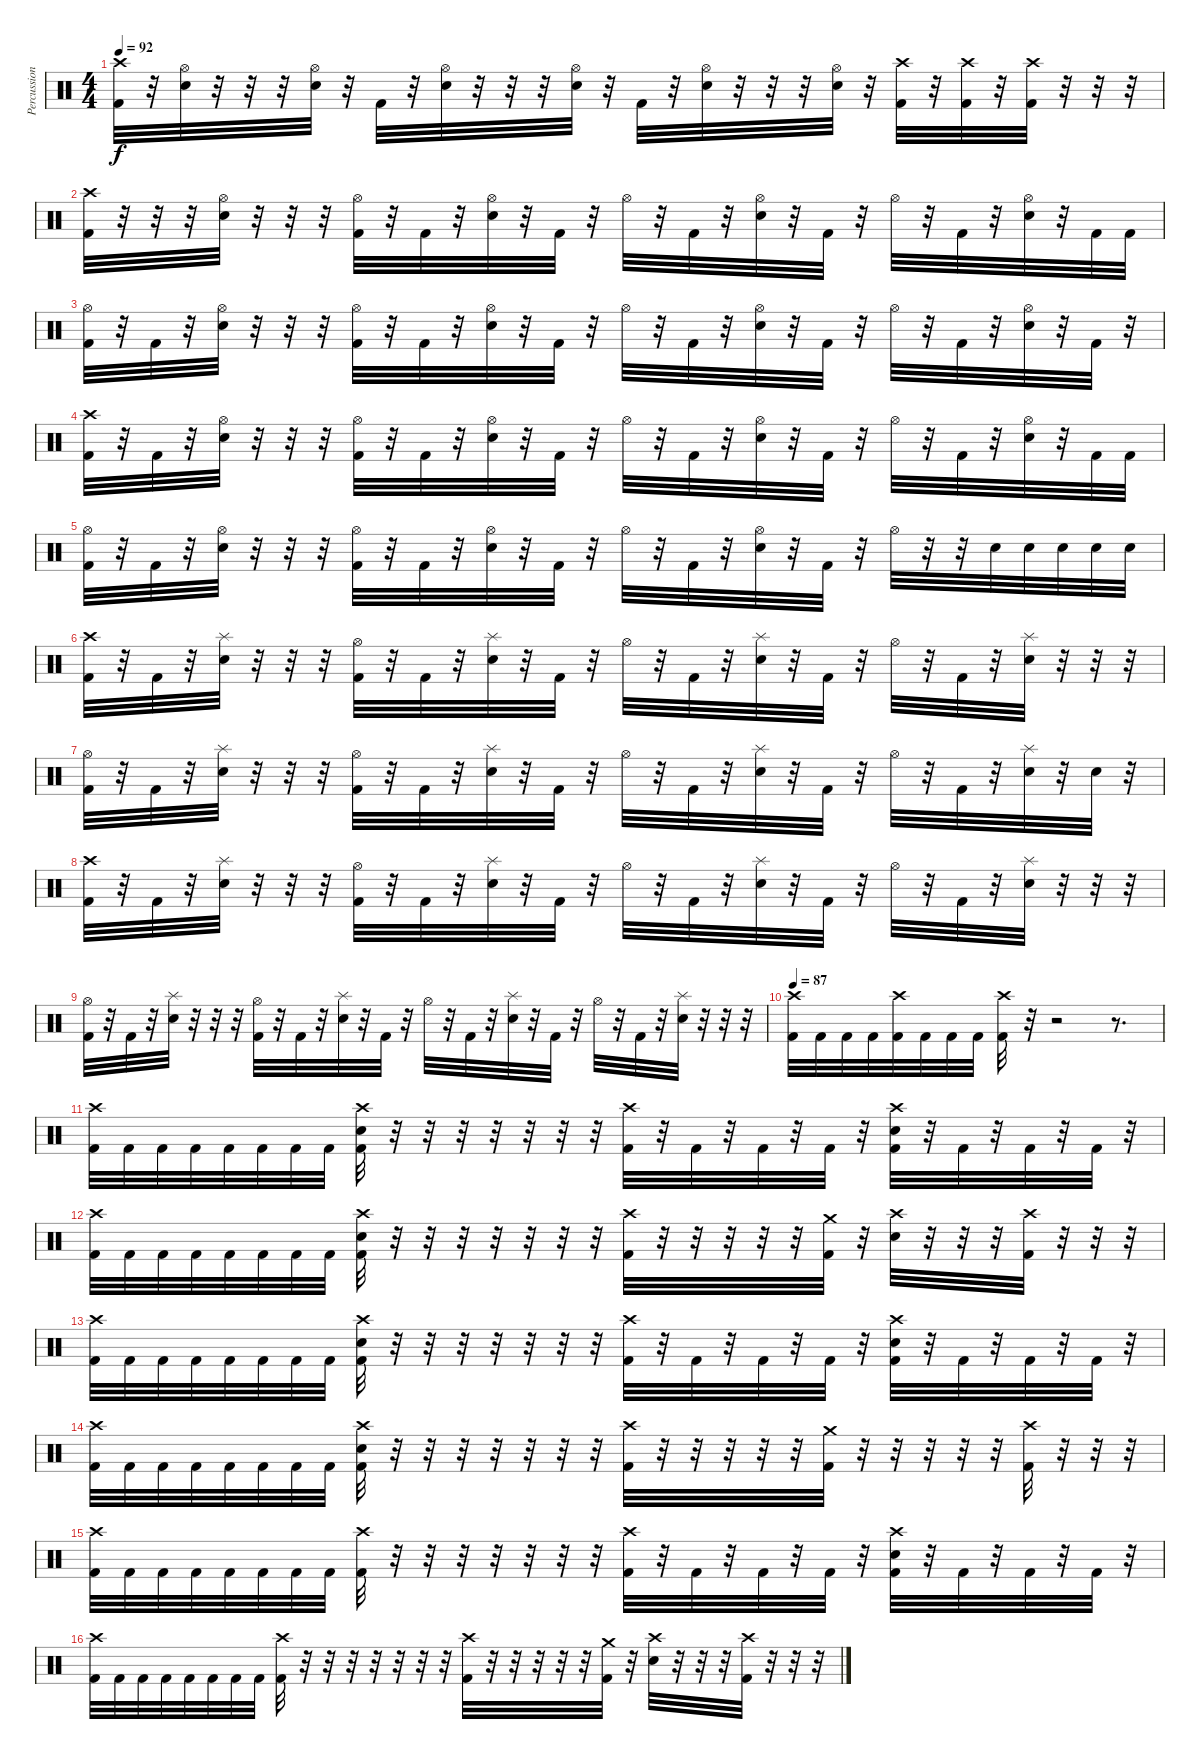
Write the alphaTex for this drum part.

\track ("Percussion" "Percussion") {instrument percussion}
\staff {score}
\articulation defaults
\ts (4 4)
\tempo 92
\clef neutral
\ks c
("Crash high (hit)" "Kick (hit) 2").32{dy f} r.32 ("Hi-Hat (open)" "Electric Snare (hit)").32 r.32 r.32 r.32 ("Hi-Hat (open)" "Electric Snare (hit)").32 r.32 "Kick (hit) 2".32 r.32 ("Hi-Hat (open)" "Electric Snare (hit)").32 r.32 r.32 r.32 ("Hi-Hat (open)" "Electric Snare (hit)").32 r.32 "Kick (hit) 2".32 r.32 ("Hi-Hat (open)" "Electric Snare (hit)").32 r.32 r.32 r.32 ("Hi-Hat (open)" "Electric Snare (hit)").32 r.32 ("Crash high (hit)" "Kick (hit) 2").32 r.32 ("Crash high (hit)" "Kick (hit) 2").32 r.32 ("Crash high (hit)" "Kick (hit) 2").32 r.32 r.32 r.32 |
("Crash high (hit)" "Kick (hit) 2").32 r.32 r.32 r.32 ("Hi-Hat (open)" "Electric Snare (hit)").32 r.32 r.32 r.32 ("Hi-Hat (open)" "Kick (hit) 2").32 r.32 "Kick (hit) 2".32 r.32 ("Hi-Hat (open)" "Electric Snare (hit)").32 r.32 "Kick (hit) 2".32 r.32 "Hi-Hat (open)".32 r.32 "Kick (hit) 2".32 r.32 ("Hi-Hat (open)" "Electric Snare (hit)").32 r.32 "Kick (hit) 2".32 r.32 "Hi-Hat (open)".32 r.32 "Kick (hit) 2".32 r.32 ("Hi-Hat (open)" "Electric Snare (hit)").32 r.32 "Kick (hit) 2".32 "Kick (hit) 2".32 |
("Hi-Hat (open)" "Kick (hit) 2").32 r.32 "Kick (hit) 2".32 r.32 ("Hi-Hat (open)" "Electric Snare (hit)").32 r.32 r.32 r.32 ("Hi-Hat (open)" "Kick (hit) 2").32 r.32 "Kick (hit) 2".32 r.32 ("Hi-Hat (open)" "Electric Snare (hit)").32 r.32 "Kick (hit) 2".32 r.32 "Hi-Hat (open)".32 r.32 "Kick (hit) 2".32 r.32 ("Hi-Hat (open)" "Electric Snare (hit)").32 r.32 "Kick (hit) 2".32 r.32 "Hi-Hat (open)".32 r.32 "Kick (hit) 2".32 r.32 ("Hi-Hat (open)" "Electric Snare (hit)").32 r.32 "Kick (hit) 2".32 r.32 |
("Crash high (hit)" "Kick (hit) 2").32 r.32 "Kick (hit) 2".32 r.32 ("Hi-Hat (open)" "Electric Snare (hit)").32 r.32 r.32 r.32 ("Hi-Hat (open)" "Kick (hit) 2").32 r.32 "Kick (hit) 2".32 r.32 ("Hi-Hat (open)" "Electric Snare (hit)").32 r.32 "Kick (hit) 2".32 r.32 "Hi-Hat (open)".32 r.32 "Kick (hit) 2".32 r.32 ("Hi-Hat (open)" "Electric Snare (hit)").32 r.32 "Kick (hit) 2".32 r.32 "Hi-Hat (open)".32 r.32 "Kick (hit) 2".32 r.32 ("Hi-Hat (open)" "Electric Snare (hit)").32 r.32 "Kick (hit) 2".32 "Kick (hit) 2".32 |
("Hi-Hat (open)" "Kick (hit) 2").32 r.32 "Kick (hit) 2".32 r.32 ("Hi-Hat (open)" "Electric Snare (hit)").32 r.32 r.32 r.32 ("Hi-Hat (open)" "Kick (hit) 2").32 r.32 "Kick (hit) 2".32 r.32 ("Hi-Hat (open)" "Electric Snare (hit)").32 r.32 "Kick (hit) 2".32 r.32 "Hi-Hat (open)".32 r.32 "Kick (hit) 2".32 r.32 ("Hi-Hat (open)" "Electric Snare (hit)").32 r.32 "Kick (hit) 2".32 r.32 "Hi-Hat (open)".32 r.32 r.32 "Electric Snare (hit)".32 "Electric Snare (hit)".32 "Electric Snare (hit)".32 "Electric Snare (hit)".32 "Electric Snare (hit)".32 |
("Crash high (hit)" "Kick (hit) 2").32 r.32 "Kick (hit) 2".32 r.32 ("Splash (hit)" "Electric Snare (hit)").32 r.32 r.32 r.32 ("Hi-Hat (open)" "Kick (hit) 2").32 r.32 "Kick (hit) 2".32 r.32 ("Splash (hit)" "Electric Snare (hit)").32 r.32 "Kick (hit) 2".32 r.32 "Hi-Hat (open)".32 r.32 "Kick (hit) 2".32 r.32 ("Splash (hit)" "Electric Snare (hit)").32 r.32 "Kick (hit) 2".32 r.32 "Hi-Hat (open)".32 r.32 "Kick (hit) 2".32 r.32 ("Splash (hit)" "Electric Snare (hit)").32 r.32 r.32 r.32 |
("Hi-Hat (open)" "Kick (hit) 2").32 r.32 "Kick (hit) 2".32 r.32 ("Splash (hit)" "Electric Snare (hit)").32 r.32 r.32 r.32 ("Hi-Hat (open)" "Kick (hit) 2").32 r.32 "Kick (hit) 2".32 r.32 ("Splash (hit)" "Electric Snare (hit)").32 r.32 "Kick (hit) 2".32 r.32 "Hi-Hat (open)".32 r.32 "Kick (hit) 2".32 r.32 ("Splash (hit)" "Electric Snare (hit)").32 r.32 "Kick (hit) 2".32 r.32 "Hi-Hat (open)".32 r.32 "Kick (hit) 2".32 r.32 ("Splash (hit)" "Electric Snare (hit)").32 r.32 "Electric Snare (hit)".32 r.32 |
("Crash high (hit)" "Kick (hit) 2").32 r.32 "Kick (hit) 2".32 r.32 ("Splash (hit)" "Electric Snare (hit)").32 r.32 r.32 r.32 ("Hi-Hat (open)" "Kick (hit) 2").32 r.32 "Kick (hit) 2".32 r.32 ("Splash (hit)" "Electric Snare (hit)").32 r.32 "Kick (hit) 2".32 r.32 "Hi-Hat (open)".32 r.32 "Kick (hit) 2".32 r.32 ("Splash (hit)" "Electric Snare (hit)").32 r.32 "Kick (hit) 2".32 r.32 "Hi-Hat (open)".32 r.32 "Kick (hit) 2".32 r.32 ("Splash (hit)" "Electric Snare (hit)").32 r.32 r.32 r.32 |
("Hi-Hat (open)" "Kick (hit) 2").32 r.32 "Kick (hit) 2".32 r.32 ("Splash (hit)" "Electric Snare (hit)").32 r.32 r.32 r.32 ("Hi-Hat (open)" "Kick (hit) 2").32 r.32 "Kick (hit) 2".32 r.32 ("Splash (hit)" "Electric Snare (hit)").32 r.32 "Kick (hit) 2".32 r.32 "Hi-Hat (open)".32 r.32 "Kick (hit) 2".32 r.32 ("Splash (hit)" "Electric Snare (hit)").32 r.32 "Kick (hit) 2".32 r.32 "Hi-Hat (open)".32 r.32 "Kick (hit) 2".32 r.32 ("Splash (hit)" "Electric Snare (hit)").32 r.32 r.32 r.32 |
\tempo 87
("Crash high (hit)" "Kick (hit) 2").32 "Kick (hit) 2".32 "Kick (hit) 2".32 "Kick (hit) 2".32 ("Crash high (hit)" "Kick (hit) 2").32 "Kick (hit) 2".32 "Kick (hit) 2".32 "Kick (hit) 2".32 ("Crash high (hit)" "Kick (hit) 2").32 r.32 r.2{volume 0} r.8{d} |
("Crash high (hit)" "Kick (hit) 2").32{volume 16} "Kick (hit) 2".32 "Kick (hit) 2".32 "Kick (hit) 2".32 "Kick (hit) 2".32 "Kick (hit) 2".32 "Kick (hit) 2".32 "Kick (hit) 2".32 ("Crash high (hit)" "Electric Snare (hit)" "Kick (hit) 2").32 r.32 r.32 r.32 r.32 r.32 r.32 r.32 ("Crash high (hit)" "Kick (hit) 2").32 r.32 "Kick (hit) 2".32 r.32 "Kick (hit) 2".32 r.32 "Kick (hit) 2".32 r.32 ("Crash high (hit)" "Electric Snare (hit)" "Kick (hit) 2").32 r.32 "Kick (hit) 2".32 r.32 "Kick (hit) 2".32 r.32 "Kick (hit) 2".32 r.32 |
("Crash high (hit)" "Kick (hit) 2").32 "Kick (hit) 2".32 "Kick (hit) 2".32 "Kick (hit) 2".32 "Kick (hit) 2".32 "Kick (hit) 2".32 "Kick (hit) 2".32 "Kick (hit) 2".32 ("Crash high (hit)" "Electric Snare (hit)" "Kick (hit) 2").32 r.32 r.32 r.32 r.32 r.32 r.32 r.32 ("Crash high (hit)" "Kick (hit) 2").32 r.32 r.32 r.32 r.32 r.32 ("Crash medium (hit)" "Kick (hit) 2").32 r.32 ("Crash high (hit)" "Electric Snare (hit)").32 r.32 r.32 r.32 ("Crash high (hit)" "Kick (hit) 2").32 r.32 r.32 r.32 |
("Crash high (hit)" "Kick (hit) 2").32 "Kick (hit) 2".32 "Kick (hit) 2".32 "Kick (hit) 2".32 "Kick (hit) 2".32 "Kick (hit) 2".32 "Kick (hit) 2".32 "Kick (hit) 2".32 ("Crash high (hit)" "Electric Snare (hit)" "Kick (hit) 2").32 r.32 r.32 r.32 r.32 r.32 r.32 r.32 ("Crash high (hit)" "Kick (hit) 2").32 r.32 "Kick (hit) 2".32 r.32 "Kick (hit) 2".32 r.32 "Kick (hit) 2".32 r.32 ("Crash high (hit)" "Electric Snare (hit)" "Kick (hit) 2").32 r.32 "Kick (hit) 2".32 r.32 "Kick (hit) 2".32 r.32 "Kick (hit) 2".32 r.32 |
("Crash high (hit)" "Kick (hit) 2").32 "Kick (hit) 2".32 "Kick (hit) 2".32 "Kick (hit) 2".32 "Kick (hit) 2".32 "Kick (hit) 2".32 "Kick (hit) 2".32 "Kick (hit) 2".32 ("Crash high (hit)" "Electric Snare (hit)" "Kick (hit) 2").32 r.32 r.32 r.32 r.32 r.32 r.32 r.32 ("Crash high (hit)" "Kick (hit) 2").32 r.32 r.32 r.32 r.32 r.32 ("Crash medium (hit)" "Kick (hit) 2").32 r.32 r.32 r.32 r.32 r.32 ("Crash high (hit)" "Kick (hit) 2").32 r.32 r.32 r.32 |
("Crash high (hit)" "Kick (hit) 2").32 "Kick (hit) 2".32 "Kick (hit) 2".32 "Kick (hit) 2".32 "Kick (hit) 2".32 "Kick (hit) 2".32 "Kick (hit) 2".32 "Kick (hit) 2".32 ("Crash high (hit)" "Kick (hit) 2").32 r.32 r.32 r.32 r.32 r.32 r.32 r.32 ("Crash high (hit)" "Kick (hit) 2").32 r.32 "Kick (hit) 2".32 r.32 "Kick (hit) 2".32 r.32 "Kick (hit) 2".32 r.32 ("Crash high (hit)" "Electric Snare (hit)" "Kick (hit) 2").32 r.32 "Kick (hit) 2".32 r.32 "Kick (hit) 2".32 r.32 "Kick (hit) 2".32 r.32 |
("Crash high (hit)" "Kick (hit) 2").32 "Kick (hit) 2".32 "Kick (hit) 2".32 "Kick (hit) 2".32 "Kick (hit) 2".32 "Kick (hit) 2".32 "Kick (hit) 2".32 "Kick (hit) 2".32 ("Crash high (hit)" "Kick (hit) 2").32 r.32 r.32 r.32 r.32 r.32 r.32 r.32 ("Crash high (hit)" "Kick (hit) 2").32 r.32 r.32 r.32 r.32 r.32 ("Crash medium (hit)" "Kick (hit) 2").32 r.32 ("Crash high (hit)" "Electric Snare (hit)").32 r.32 r.32 r.32 ("Crash high (hit)" "Kick (hit) 2").32 r.32 r.32 r.32
